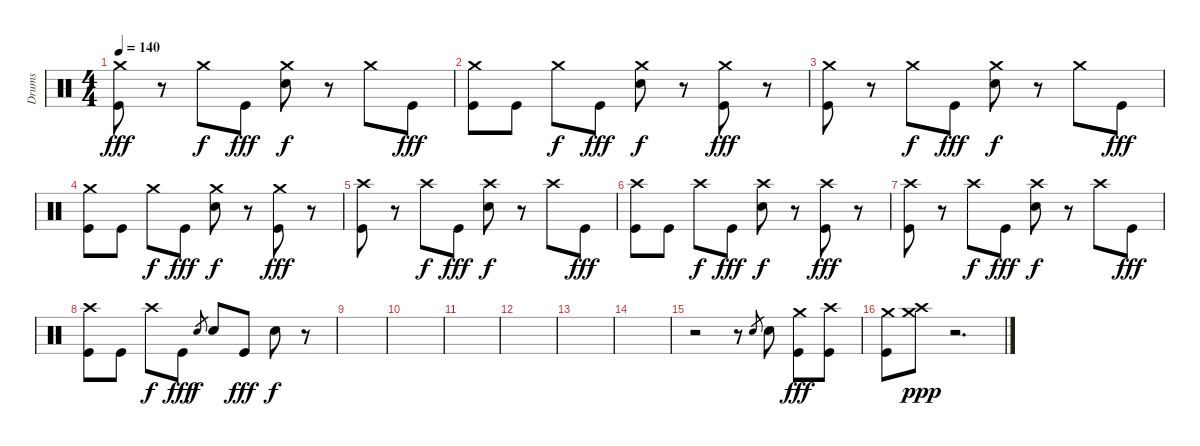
\track ("Drums" "Drums") {instrument percussion}
\staff {score}
\articulation defaults
\ts (4 4)
\tempo 140
\clef neutral
\ks c
("Crash medium (hit)" "Kick (hit)").8{dy fff} r.8 "Crash medium (hit)".8{dy f} "Kick (hit)".8{dy fff} ("Crash medium (hit)" "Electric Snare (hit)").8{dy f} r.8 "Crash medium (hit)".8 "Kick (hit)".8{dy fff} |
("Crash medium (hit)" "Kick (hit)").8 "Kick (hit)".8 "Crash medium (hit)".8{dy f} "Kick (hit)".8{dy fff} ("Crash medium (hit)" "Electric Snare (hit)").8{dy f} r.8 ("Crash medium (hit)" "Kick (hit)").8{dy fff} r.8 |
("Crash medium (hit)" "Kick (hit)").8 r.8 "Crash medium (hit)".8{dy f} "Kick (hit)".8{dy fff} ("Crash medium (hit)" "Electric Snare (hit)").8{dy f} r.8 "Crash medium (hit)".8 "Kick (hit)".8{dy fff} |
("Crash medium (hit)" "Kick (hit)").8 "Kick (hit)".8 "Crash medium (hit)".8{dy f} "Kick (hit)".8{dy fff} ("Crash medium (hit)" "Electric Snare (hit)").8{dy f} r.8 ("Crash medium (hit)" "Kick (hit)").8{dy fff} r.8 |
("Crash high (hit)" "Kick (hit)").8 r.8 "Crash high (hit)".8{dy f} "Kick (hit)".8{dy fff} ("Crash high (hit)" "Electric Snare (hit)").8{dy f} r.8 "Crash high (hit)".8 "Kick (hit)".8{dy fff} |
("Crash high (hit)" "Kick (hit)").8 "Kick (hit)".8 "Crash high (hit)".8{dy f} "Kick (hit)".8{dy fff} ("Crash high (hit)" "Electric Snare (hit)").8{dy f} r.8 ("Crash high (hit)" "Kick (hit)").8{dy fff} r.8 |
("Crash high (hit)" "Kick (hit)").8 r.8 "Crash high (hit)".8{dy f} "Kick (hit)".8{dy fff} ("Crash high (hit)" "Electric Snare (hit)").8{dy f} r.8 "Crash high (hit)".8 "Kick (hit)".8{dy fff} |
("Crash high (hit)" "Kick (hit)").8 "Kick (hit)".8 "Crash high (hit)".8{dy f} "Kick (hit)".8{dy fff} "Electric Snare (hit)".8{gr dy f} "Electric Snare (hit)".8 "Kick (hit)".8{dy fff} "Electric Snare (hit)".8{dy f} r.8 |
|
|
|
|
|
|
r.2 r.8 "Electric Snare (hit)".8{gr} "Electric Snare (hit)".8 ("Crash medium (hit)" "Kick (hit)").8{dy fff} ("Crash high (hit)" "Kick (hit)").8 |
("Crash medium (hit)" "Kick (hit)").8 ("Crash medium (hit)" "Crash high (hit)").8{dy ppp} r.2{d}
